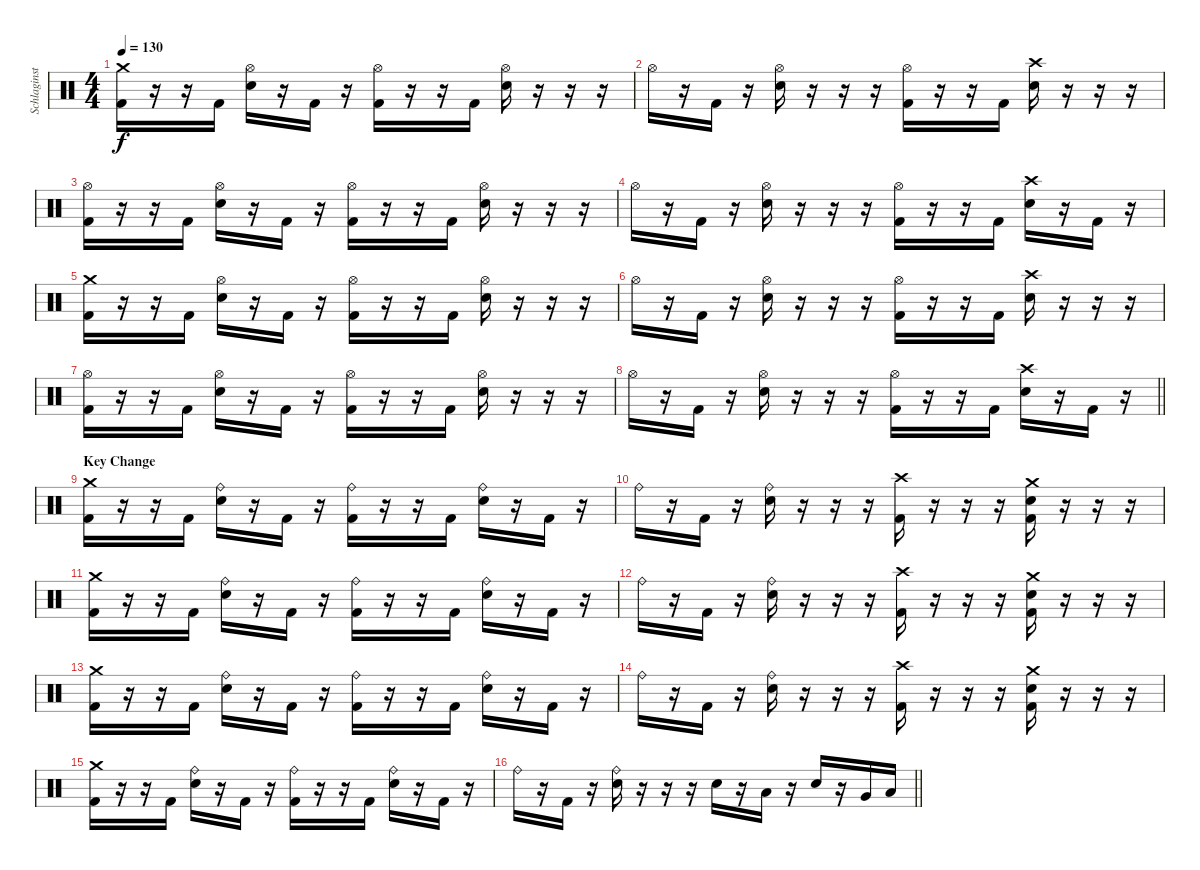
\track ("Schlaginstrumente - Auswahl" "Schlaginst") {instrument percussion}
\staff {score}
\articulation defaults
\ts (4 4)
\tempo 130
\clef neutral
\ks c
("Crash medium (hit)" "Kick (hit) 2").16{dy f} r.16 r.16 "Kick (hit) 2".16 ("Hi-Hat (open)" "Electric Snare (hit)").16 r.16 "Kick (hit) 2".16 r.16 ("Hi-Hat (open)" "Kick (hit) 2").16 r.16 r.16 "Kick (hit) 2".16 ("Hi-Hat (open)" "Electric Snare (hit)").16 r.16 r.16 r.16 |
"Hi-Hat (open)".16 r.16 "Kick (hit) 2".16 r.16 ("Hi-Hat (open)" "Electric Snare (hit)").16 r.16 r.16 r.16 ("Hi-Hat (open)" "Kick (hit) 2").16 r.16 r.16 "Kick (hit) 2".16 ("Crash high (hit)" "Electric Snare (hit)").16 r.16 r.16 r.16 |
("Hi-Hat (open)" "Kick (hit) 2").16 r.16 r.16 "Kick (hit) 2".16 ("Hi-Hat (open)" "Electric Snare (hit)").16 r.16 "Kick (hit) 2".16 r.16 ("Hi-Hat (open)" "Kick (hit) 2").16 r.16 r.16 "Kick (hit) 2".16 ("Hi-Hat (open)" "Electric Snare (hit)").16 r.16 r.16 r.16 |
"Hi-Hat (open)".16 r.16 "Kick (hit) 2".16 r.16 ("Hi-Hat (open)" "Electric Snare (hit)").16 r.16 r.16 r.16 ("Hi-Hat (open)" "Kick (hit) 2").16 r.16 r.16 "Kick (hit) 2".16 ("Crash high (hit)" "Electric Snare (hit)").16 r.16 "Kick (hit) 2".16 r.16 |
("Crash medium (hit)" "Kick (hit) 2").16 r.16 r.16 "Kick (hit) 2".16 ("Hi-Hat (open)" "Electric Snare (hit)").16 r.16 "Kick (hit) 2".16 r.16 ("Hi-Hat (open)" "Kick (hit) 2").16 r.16 r.16 "Kick (hit) 2".16 ("Hi-Hat (open)" "Electric Snare (hit)").16 r.16 r.16 r.16 |
"Hi-Hat (open)".16 r.16 "Kick (hit) 2".16 r.16 ("Hi-Hat (open)" "Electric Snare (hit)").16 r.16 r.16 r.16 ("Hi-Hat (open)" "Kick (hit) 2").16 r.16 r.16 "Kick (hit) 2".16 ("Crash high (hit)" "Electric Snare (hit)").16 r.16 r.16 r.16 |
("Hi-Hat (open)" "Kick (hit) 2").16 r.16 r.16 "Kick (hit) 2".16 ("Hi-Hat (open)" "Electric Snare (hit)").16 r.16 "Kick (hit) 2".16 r.16 ("Hi-Hat (open)" "Kick (hit) 2").16 r.16 r.16 "Kick (hit) 2".16 ("Hi-Hat (open)" "Electric Snare (hit)").16 r.16 r.16 r.16 |
\barLineRight lightlight "Hi-Hat (open)".16
r.16 "Kick (hit) 2".16 r.16 ("Hi-Hat (open)" "Electric Snare (hit)").16 r.16 r.16 r.16 ("Hi-Hat (open)" "Kick (hit) 2").16 r.16 r.16 "Kick (hit) 2".16 ("Crash high (hit)" "Electric Snare (hit)").16 r.16 "Kick (hit) 2".16 r.16 |
\section ("" "Key Change")
("Crash medium (hit)" "Kick (hit) 2").16 r.16 r.16 "Kick (hit) 2".16 ("Ride (bell)" "Electric Snare (hit)").16 r.16 "Kick (hit) 2".16 r.16 ("Ride (bell)" "Kick (hit) 2").16 r.16 r.16 "Kick (hit) 2".16 ("Ride (bell)" "Electric Snare (hit)").16 r.16 "Kick (hit) 2".16 r.16 |
"Ride (bell)".16 r.16 "Kick (hit) 2".16 r.16 ("Ride (bell)" "Electric Snare (hit)").16 r.16 r.16 r.16 ("Crash high (hit)" "Kick (hit) 2").16 r.16 r.16 r.16 ("Crash medium (hit)" "Electric Snare (hit)" "Kick (hit) 2").16 r.16 r.16 r.16 |
("Crash medium (hit)" "Kick (hit) 2").16 r.16 r.16 "Kick (hit) 2".16 ("Ride (bell)" "Electric Snare (hit)").16 r.16 "Kick (hit) 2".16 r.16 ("Ride (bell)" "Kick (hit) 2").16 r.16 r.16 "Kick (hit) 2".16 ("Ride (bell)" "Electric Snare (hit)").16 r.16 "Kick (hit) 2".16 r.16 |
"Ride (bell)".16 r.16 "Kick (hit) 2".16 r.16 ("Ride (bell)" "Electric Snare (hit)").16 r.16 r.16 r.16 ("Crash high (hit)" "Kick (hit) 2").16 r.16 r.16 r.16 ("Crash medium (hit)" "Electric Snare (hit)" "Kick (hit) 2").16 r.16 r.16 r.16 |
("Crash medium (hit)" "Kick (hit) 2").16 r.16 r.16 "Kick (hit) 2".16 ("Ride (bell)" "Electric Snare (hit)").16 r.16 "Kick (hit) 2".16 r.16 ("Ride (bell)" "Kick (hit) 2").16 r.16 r.16 "Kick (hit) 2".16 ("Ride (bell)" "Electric Snare (hit)").16 r.16 "Kick (hit) 2".16 r.16 |
"Ride (bell)".16 r.16 "Kick (hit) 2".16 r.16 ("Ride (bell)" "Electric Snare (hit)").16 r.16 r.16 r.16 ("Crash high (hit)" "Kick (hit) 2").16 r.16 r.16 r.16 ("Crash medium (hit)" "Electric Snare (hit)" "Kick (hit) 2").16 r.16 r.16 r.16 |
("Crash medium (hit)" "Kick (hit) 2").16 r.16 r.16 "Kick (hit) 2".16 ("Ride (bell)" "Electric Snare (hit)").16 r.16 "Kick (hit) 2".16 r.16 ("Ride (bell)" "Kick (hit) 2").16 r.16 r.16 "Kick (hit) 2".16 ("Ride (bell)" "Electric Snare (hit)").16 r.16 "Kick (hit) 2".16 r.16 |
\barLineRight lightlight "Ride (bell)".16
r.16 "Kick (hit) 2".16 r.16 ("Ride (bell)" "Electric Snare (hit)").16 r.16 r.16 r.16 "Electric Snare (hit)".16 r.16 "Low Tom (hit)".16 r.16 "Electric Snare (hit)".16 r.16 "Very Low Tom (hit)".16 "Low Floor Tom (hit)".16
